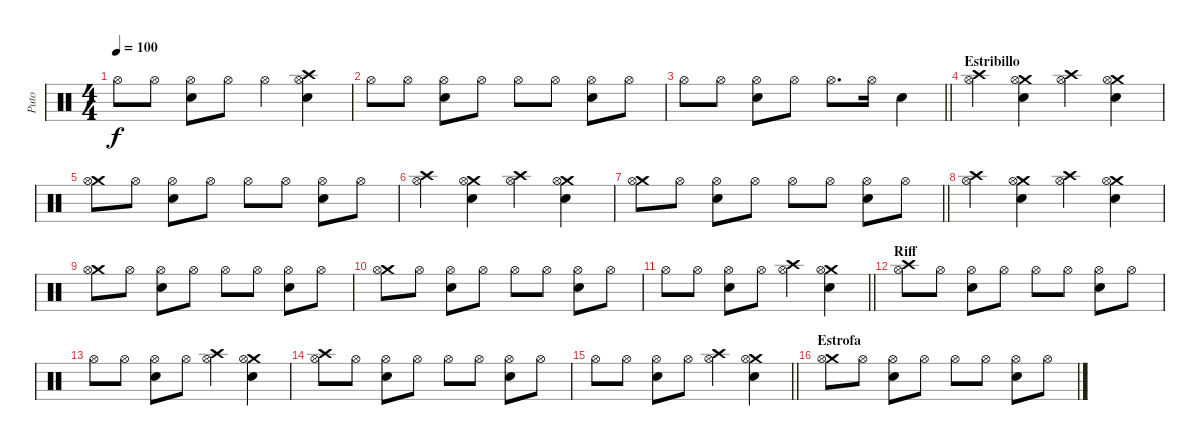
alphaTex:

\track ("Puto" "Puto") {instrument percussion}
\staff {score}
\articulation defaults
\ts (4 4)
\tempo 100
\clef neutral
\ks c "Hi-Hat (open)".8{dy f} "Hi-Hat (open)".8
("Snare (hit) 2" "Hi-Hat (open)").8 "Hi-Hat (open)".8 "Hi-Hat (open)".4 ("Crash high (hit)" "Snare (hit) 2" "Hi-Hat (open)").4 |
"Hi-Hat (open)".8 "Hi-Hat (open)".8 ("Snare (hit) 2" "Hi-Hat (open)").8 "Hi-Hat (open)".8 "Hi-Hat (open)".8 "Hi-Hat (open)".8 ("Snare (hit) 2" "Hi-Hat (open)").8 "Hi-Hat (open)".8 |
\barLineRight lightlight "Hi-Hat (open)".8 "Hi-Hat (open)".8
("Snare (hit) 2" "Hi-Hat (open)").8 "Hi-Hat (open)".8 "Hi-Hat (open)".8{d} "Hi-Hat (open)".16 "Snare (hit) 2".4 |
\section ("" "Estribillo")
("Crash high (hit)" "Hi-Hat (open)").4 ("Crash medium (hit)" "Snare (hit) 2" "Hi-Hat (open)").4 ("Crash high (hit)" "Hi-Hat (open)").4 ("Crash medium (hit)" "Snare (hit) 2" "Hi-Hat (open)").4 |
("Crash medium (hit)" "Hi-Hat (open)").8 "Hi-Hat (open)".8 ("Snare (hit) 2" "Hi-Hat (open)").8 "Hi-Hat (open)".8 "Hi-Hat (open)".8 "Hi-Hat (open)".8 ("Snare (hit) 2" "Hi-Hat (open)").8 "Hi-Hat (open)".8 |
("Crash high (hit)" "Hi-Hat (open)").4 ("Crash medium (hit)" "Snare (hit) 2" "Hi-Hat (open)").4 ("Crash high (hit)" "Hi-Hat (open)").4 ("Crash medium (hit)" "Snare (hit) 2" "Hi-Hat (open)").4 |
\barLineRight lightlight
("Crash medium (hit)" "Hi-Hat (open)").8 "Hi-Hat (open)".8 ("Snare (hit) 2" "Hi-Hat (open)").8 "Hi-Hat (open)".8 "Hi-Hat (open)".8 "Hi-Hat (open)".8 ("Snare (hit) 2" "Hi-Hat (open)").8 "Hi-Hat (open)".8 |
("Crash high (hit)" "Hi-Hat (open)").4 ("Crash medium (hit)" "Snare (hit) 2" "Hi-Hat (open)").4 ("Crash high (hit)" "Hi-Hat (open)").4 ("Crash medium (hit)" "Snare (hit) 2" "Hi-Hat (open)").4 |
("Crash medium (hit)" "Hi-Hat (open)").8 "Hi-Hat (open)".8 ("Snare (hit) 2" "Hi-Hat (open)").8 "Hi-Hat (open)".8 "Hi-Hat (open)".8 "Hi-Hat (open)".8 ("Snare (hit) 2" "Hi-Hat (open)").8 "Hi-Hat (open)".8 |
("Crash medium (hit)" "Hi-Hat (open)").8 "Hi-Hat (open)".8 ("Snare (hit) 2" "Hi-Hat (open)").8 "Hi-Hat (open)".8 "Hi-Hat (open)".8 "Hi-Hat (open)".8 ("Snare (hit) 2" "Hi-Hat (open)").8 "Hi-Hat (open)".8 |
\barLineRight lightlight "Hi-Hat (open)".8 "Hi-Hat (open)".8
("Snare (hit) 2" "Hi-Hat (open)").8 "Hi-Hat (open)".8 ("Crash high (hit)" "Hi-Hat (open)").4 ("Crash medium (hit)" "Snare (hit) 2" "Hi-Hat (open)").4 |
\section ("" "Riff")
("Crash high (hit)" "Hi-Hat (open)").8 "Hi-Hat (open)".8 ("Snare (hit) 2" "Hi-Hat (open)").8 "Hi-Hat (open)".8 "Hi-Hat (open)".8 "Hi-Hat (open)".8 ("Snare (hit) 2" "Hi-Hat (open)").8 "Hi-Hat (open)".8 |
"Hi-Hat (open)".8 "Hi-Hat (open)".8 ("Snare (hit) 2" "Hi-Hat (open)").8 "Hi-Hat (open)".8 ("Crash high (hit)" "Hi-Hat (open)").4 ("Crash medium (hit)" "Snare (hit) 2" "Hi-Hat (open)").4 |
("Crash high (hit)" "Hi-Hat (open)").8 "Hi-Hat (open)".8 ("Snare (hit) 2" "Hi-Hat (open)").8 "Hi-Hat (open)".8 "Hi-Hat (open)".8 "Hi-Hat (open)".8 ("Snare (hit) 2" "Hi-Hat (open)").8 "Hi-Hat (open)".8 |
\barLineRight lightlight "Hi-Hat (open)".8 "Hi-Hat (open)".8
("Snare (hit) 2" "Hi-Hat (open)").8 "Hi-Hat (open)".8 ("Crash high (hit)" "Hi-Hat (open)").4 ("Crash medium (hit)" "Snare (hit) 2" "Hi-Hat (open)").4 |
\section ("" "Estrofa")
("Crash medium (hit)" "Hi-Hat (open)").8 "Hi-Hat (open)".8 ("Snare (hit) 2" "Hi-Hat (open)").8 "Hi-Hat (open)".8 "Hi-Hat (open)".8 "Hi-Hat (open)".8 ("Snare (hit) 2" "Hi-Hat (open)").8 "Hi-Hat (open)".8
